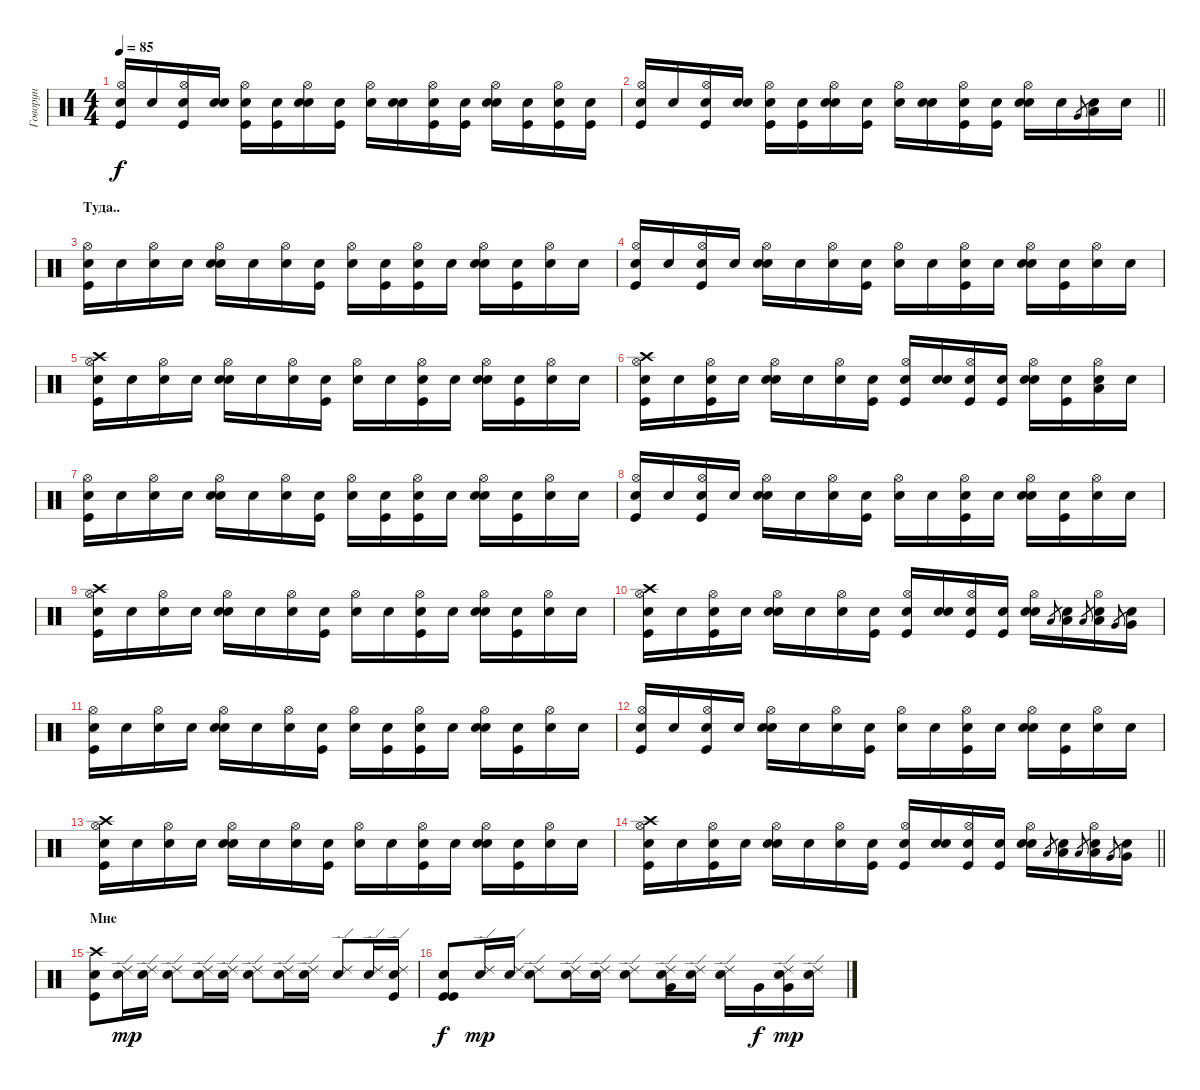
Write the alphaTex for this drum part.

\track ("Говорун" "Говорун") {instrument percussion}
\staff {score}
\articulation defaults
\ts (4 4)
\tempo 85
\clef neutral
\ks c
("Kick (hit)" "Hi-Hat (open)" "Snare (hit)"{x}).16{dy f} "Snare (hit)"{x}.16 ("Kick (hit)" "Hi-Hat (open)" "Snare (hit)"{x}).16 ("Snare (hit) 2" "Snare (hit)"{x}).16 ("Kick (hit)" "Hi-Hat (open)" "Snare (hit)"{x}).16 ("Kick (hit)" "Snare (hit)"{x}).16 ("Snare (hit) 2" "Hi-Hat (open)" "Snare (hit)"{x}).16 ("Kick (hit)" "Snare (hit)"{x}).16 ("Hi-Hat (open)" "Snare (hit)"{x}).16 ("Snare (hit) 2" "Snare (hit)"{x}).16 ("Kick (hit)" "Hi-Hat (open)" "Snare (hit)"{x}).16 ("Kick (hit)" "Snare (hit)"{x}).16 ("Snare (hit) 2" "Hi-Hat (open)" "Snare (hit)"{x}).16 ("Kick (hit)" "Snare (hit)"{x}).16 ("Kick (hit)" "Hi-Hat (open)" "Snare (hit)"{x}).16 ("Kick (hit)" "Snare (hit)"{x}).16 |
\barLineRight lightlight
("Kick (hit)" "Hi-Hat (open)" "Snare (hit)"{x}).16 "Snare (hit)"{x}.16 ("Kick (hit)" "Hi-Hat (open)" "Snare (hit)"{x}).16 ("Snare (hit) 2" "Snare (hit)"{x}).16 ("Kick (hit)" "Hi-Hat (open)" "Snare (hit)"{x}).16 ("Kick (hit)" "Snare (hit)"{x}).16 ("Snare (hit) 2" "Hi-Hat (open)" "Snare (hit)"{x}).16 ("Kick (hit)" "Snare (hit)"{x}).16 ("Hi-Hat (open)" "Snare (hit)"{x}).16 ("Snare (hit) 2" "Snare (hit)"{x}).16 ("Kick (hit)" "Hi-Hat (open)" "Snare (hit)"{x}).16 ("Kick (hit)" "Snare (hit)"{x}).16 ("Snare (hit) 2" "Hi-Hat (open)" "Snare (hit)"{x}).16 "Snare (hit)"{x}.16 "Very Low Tom (hit)".8{gr} ("Low Tom (hit)" "Snare (hit)"{x}).16 "Snare (hit)"{x}.16 |
\section ("" "Туда..")
("Kick (hit)" "Hi-Hat (open)" "Snare (hit)"{x}).16 "Snare (hit)"{x}.16 ("Hi-Hat (open)" "Snare (hit)"{x}).16 "Snare (hit)"{x}.16 ("Snare (hit) 2" "Hi-Hat (open)" "Snare (hit)"{x}).16 "Snare (hit)"{x}.16 ("Hi-Hat (open)" "Snare (hit)"{x}).16 ("Kick (hit)" "Snare (hit)"{x}).16 ("Hi-Hat (open)" "Snare (hit)"{x}).16 ("Kick (hit)" "Snare (hit)"{x}).16 ("Kick (hit)" "Hi-Hat (open)" "Snare (hit)"{x}).16 "Snare (hit)"{x}.16 ("Snare (hit) 2" "Hi-Hat (open)" "Snare (hit)"{x}).16 ("Kick (hit)" "Snare (hit)"{x}).16 ("Hi-Hat (open)" "Snare (hit)"{x}).16 "Snare (hit)"{x}.16 |
("Kick (hit)" "Hi-Hat (open)" "Snare (hit)"{x}).16 "Snare (hit)"{x}.16 ("Kick (hit)" "Hi-Hat (open)" "Snare (hit)"{x}).16 "Snare (hit)"{x}.16 ("Snare (hit) 2" "Hi-Hat (open)" "Snare (hit)"{x}).16 "Snare (hit)"{x}.16 ("Hi-Hat (open)" "Snare (hit)"{x}).16 ("Kick (hit)" "Snare (hit)"{x}).16 ("Hi-Hat (open)" "Snare (hit)"{x}).16 "Snare (hit)"{x}.16 ("Kick (hit)" "Hi-Hat (open)" "Snare (hit)"{x}).16 "Snare (hit)"{x}.16 ("Snare (hit) 2" "Hi-Hat (open)" "Snare (hit)"{x}).16 ("Kick (hit)" "Snare (hit)"{x}).16 ("Hi-Hat (open)" "Snare (hit)"{x}).16 "Snare (hit)"{x}.16 |
("Kick (hit)" "Hi-Hat (open)" "Crash high (hit)" "Snare (hit)"{x}).16 "Snare (hit)"{x}.16 ("Hi-Hat (open)" "Snare (hit)"{x}).16 "Snare (hit)"{x}.16 ("Snare (hit) 2" "Hi-Hat (open)" "Snare (hit)"{x}).16 "Snare (hit)"{x}.16 ("Hi-Hat (open)" "Snare (hit)"{x}).16 ("Kick (hit)" "Snare (hit)"{x}).16 ("Hi-Hat (open)" "Snare (hit)"{x}).16 "Snare (hit)"{x}.16 ("Kick (hit)" "Hi-Hat (open)" "Snare (hit)"{x}).16 "Snare (hit)"{x}.16 ("Snare (hit) 2" "Hi-Hat (open)" "Snare (hit)"{x}).16 ("Kick (hit)" "Snare (hit)"{x}).16 ("Hi-Hat (open)" "Snare (hit)"{x}).16 "Snare (hit)"{x}.16 |
("Kick (hit)" "Hi-Hat (open)" "Crash high (hit)" "Snare (hit)"{x}).16 "Snare (hit)"{x}.16 ("Kick (hit)" "Hi-Hat (open)" "Snare (hit)"{x}).16 "Snare (hit)"{x}.16 ("Snare (hit) 2" "Hi-Hat (open)" "Snare (hit)"{x}).16 "Snare (hit)"{x}.16 ("Hi-Hat (open)" "Snare (hit)"{x}).16 ("Kick (hit)" "Snare (hit)"{x}).16 ("Kick (hit)" "Hi-Hat (open)" "Snare (hit)"{x}).16 ("Snare (hit) 2" "Snare (hit)"{x}).16 ("Kick (hit)" "Hi-Hat (open)" "Snare (hit)"{x}).16 ("Kick (hit)" "Snare (hit)"{x}).16 ("Snare (hit) 2" "Hi-Hat (open)" "Snare (hit)"{x}).16 ("Kick (hit)" "Snare (hit)"{x}).16 ("Low Tom (hit)" "Hi-Hat (open)" "Snare (hit)"{x}).16 "Snare (hit)"{x}.16 |
("Kick (hit)" "Hi-Hat (open)" "Snare (hit)"{x}).16 "Snare (hit)"{x}.16 ("Hi-Hat (open)" "Snare (hit)"{x}).16 "Snare (hit)"{x}.16 ("Snare (hit) 2" "Hi-Hat (open)" "Snare (hit)"{x}).16 "Snare (hit)"{x}.16 ("Hi-Hat (open)" "Snare (hit)"{x}).16 ("Kick (hit)" "Snare (hit)"{x}).16 ("Hi-Hat (open)" "Snare (hit)"{x}).16 ("Kick (hit)" "Snare (hit)"{x}).16 ("Kick (hit)" "Hi-Hat (open)" "Snare (hit)"{x}).16 "Snare (hit)"{x}.16 ("Snare (hit) 2" "Hi-Hat (open)" "Snare (hit)"{x}).16 ("Kick (hit)" "Snare (hit)"{x}).16 ("Hi-Hat (open)" "Snare (hit)"{x}).16 "Snare (hit)"{x}.16 |
("Kick (hit)" "Hi-Hat (open)" "Snare (hit)"{x}).16 "Snare (hit)"{x}.16 ("Kick (hit)" "Hi-Hat (open)" "Snare (hit)"{x}).16 "Snare (hit)"{x}.16 ("Snare (hit) 2" "Hi-Hat (open)" "Snare (hit)"{x}).16 "Snare (hit)"{x}.16 ("Hi-Hat (open)" "Snare (hit)"{x}).16 ("Kick (hit)" "Snare (hit)"{x}).16 ("Hi-Hat (open)" "Snare (hit)"{x}).16 "Snare (hit)"{x}.16 ("Kick (hit)" "Hi-Hat (open)" "Snare (hit)"{x}).16 "Snare (hit)"{x}.16 ("Snare (hit) 2" "Hi-Hat (open)" "Snare (hit)"{x}).16 ("Kick (hit)" "Snare (hit)"{x}).16 ("Hi-Hat (open)" "Snare (hit)"{x}).16 "Snare (hit)"{x}.16 |
("Kick (hit)" "Hi-Hat (open)" "Crash high (hit)" "Snare (hit)"{x}).16 "Snare (hit)"{x}.16 ("Hi-Hat (open)" "Snare (hit)"{x}).16 "Snare (hit)"{x}.16 ("Snare (hit) 2" "Hi-Hat (open)" "Snare (hit)"{x}).16 "Snare (hit)"{x}.16 ("Hi-Hat (open)" "Snare (hit)"{x}).16 ("Kick (hit)" "Snare (hit)"{x}).16 ("Hi-Hat (open)" "Snare (hit)"{x}).16 "Snare (hit)"{x}.16 ("Kick (hit)" "Hi-Hat (open)" "Snare (hit)"{x}).16 "Snare (hit)"{x}.16 ("Snare (hit) 2" "Hi-Hat (open)" "Snare (hit)"{x}).16 ("Kick (hit)" "Snare (hit)"{x}).16 ("Hi-Hat (open)" "Snare (hit)"{x}).16 "Snare (hit)"{x}.16 |
("Kick (hit)" "Hi-Hat (open)" "Crash high (hit)" "Snare (hit)"{x}).16 "Snare (hit)"{x}.16 ("Kick (hit)" "Hi-Hat (open)" "Snare (hit)"{x}).16 "Snare (hit)"{x}.16 ("Snare (hit) 2" "Hi-Hat (open)" "Snare (hit)"{x}).16 "Snare (hit)"{x}.16 ("Hi-Hat (open)" "Snare (hit)"{x}).16 ("Kick (hit)" "Snare (hit)"{x}).16 ("Kick (hit)" "Hi-Hat (open)" "Snare (hit)"{x}).16 ("Snare (hit) 2" "Snare (hit)"{x}).16 ("Kick (hit)" "Hi-Hat (open)" "Snare (hit)"{x}).16 ("Kick (hit)" "Snare (hit)"{x}).16 ("Snare (hit) 2" "Hi-Hat (open)" "Snare (hit)"{x}).16 "Low Tom (hit)".8{gr} ("Low Tom (hit)" "Snare (hit)"{x}).16 "Low Tom (hit)".8{gr} ("Low Tom (hit)" "Hi-Hat (open)" "Snare (hit)"{x}).16 "Very Low Tom (hit)".8{gr} ("Very Low Tom (hit)" "Snare (hit)"{x}).16 |
("Kick (hit)" "Hi-Hat (open)" "Snare (hit)"{x}).16 "Snare (hit)"{x}.16 ("Hi-Hat (open)" "Snare (hit)"{x}).16 "Snare (hit)"{x}.16 ("Snare (hit) 2" "Hi-Hat (open)" "Snare (hit)"{x}).16 "Snare (hit)"{x}.16 ("Hi-Hat (open)" "Snare (hit)"{x}).16 ("Kick (hit)" "Snare (hit)"{x}).16 ("Hi-Hat (open)" "Snare (hit)"{x}).16 ("Kick (hit)" "Snare (hit)"{x}).16 ("Kick (hit)" "Hi-Hat (open)" "Snare (hit)"{x}).16 "Snare (hit)"{x}.16 ("Snare (hit) 2" "Hi-Hat (open)" "Snare (hit)"{x}).16 ("Kick (hit)" "Snare (hit)"{x}).16 ("Hi-Hat (open)" "Snare (hit)"{x}).16 "Snare (hit)"{x}.16 |
("Kick (hit)" "Hi-Hat (open)" "Snare (hit)"{x}).16 "Snare (hit)"{x}.16 ("Kick (hit)" "Hi-Hat (open)" "Snare (hit)"{x}).16 "Snare (hit)"{x}.16 ("Snare (hit) 2" "Hi-Hat (open)" "Snare (hit)"{x}).16 "Snare (hit)"{x}.16 ("Hi-Hat (open)" "Snare (hit)"{x}).16 ("Kick (hit)" "Snare (hit)"{x}).16 ("Hi-Hat (open)" "Snare (hit)"{x}).16 "Snare (hit)"{x}.16 ("Kick (hit)" "Hi-Hat (open)" "Snare (hit)"{x}).16 "Snare (hit)"{x}.16 ("Snare (hit) 2" "Hi-Hat (open)" "Snare (hit)"{x}).16 ("Kick (hit)" "Snare (hit)"{x}).16 ("Hi-Hat (open)" "Snare (hit)"{x}).16 "Snare (hit)"{x}.16 |
("Kick (hit)" "Hi-Hat (open)" "Crash high (hit)" "Snare (hit)"{x}).16 "Snare (hit)"{x}.16 ("Hi-Hat (open)" "Snare (hit)"{x}).16 "Snare (hit)"{x}.16 ("Snare (hit) 2" "Hi-Hat (open)" "Snare (hit)"{x}).16 "Snare (hit)"{x}.16 ("Hi-Hat (open)" "Snare (hit)"{x}).16 ("Kick (hit)" "Snare (hit)"{x}).16 ("Hi-Hat (open)" "Snare (hit)"{x}).16 "Snare (hit)"{x}.16 ("Kick (hit)" "Hi-Hat (open)" "Snare (hit)"{x}).16 "Snare (hit)"{x}.16 ("Snare (hit) 2" "Hi-Hat (open)" "Snare (hit)"{x}).16 ("Kick (hit)" "Snare (hit)"{x}).16 ("Hi-Hat (open)" "Snare (hit)"{x}).16 "Snare (hit)"{x}.16 |
\barLineRight lightlight
("Kick (hit)" "Hi-Hat (open)" "Crash high (hit)" "Snare (hit)"{x}).16 "Snare (hit)"{x}.16 ("Kick (hit)" "Hi-Hat (open)" "Snare (hit)"{x}).16 "Snare (hit)"{x}.16 ("Snare (hit) 2" "Hi-Hat (open)" "Snare (hit)"{x}).16 "Snare (hit)"{x}.16 ("Hi-Hat (open)" "Snare (hit)"{x}).16 ("Kick (hit)" "Snare (hit)"{x}).16 ("Kick (hit)" "Hi-Hat (open)" "Snare (hit)"{x}).16 ("Snare (hit) 2" "Snare (hit)"{x}).16 ("Kick (hit)" "Hi-Hat (open)" "Snare (hit)"{x}).16 ("Kick (hit)" "Snare (hit)"{x}).16 ("Snare (hit) 2" "Hi-Hat (open)" "Snare (hit)"{x}).16 "Low Tom (hit)".8{gr} ("Low Tom (hit)" "Snare (hit)"{x}).16 "Low Tom (hit)".8{gr} ("Low Tom (hit)" "Hi-Hat (open)" "Snare (hit)"{x}).16 "Very Low Tom (hit)".8{gr} ("Very Low Tom (hit)" "Snare (hit)"{x}).16 |
\section ("" "Мне")
("Kick (hit)" "Crash high (hit)" "Snare (hit)"{x}).8 ("Ride (edge) 2" "Snare (hit)"{x}).16{dy mp} ("Ride (edge) 2" "Snare (hit)"{x}).16 ("Ride (edge) 2" "Snare (hit)"{x}).8 ("Ride (edge) 2" "Snare (hit)"{x}).16 ("Ride (edge) 2" "Snare (hit)"{x}).16 ("Ride (edge) 2" "Snare (hit)"{x}).8 ("Ride (edge) 2" "Snare (hit)"{x}).16 ("Ride (edge) 2" "Snare (hit)"{x}).16 ("Ride (edge) 2" "Snare (hit)"{x}).8 ("Ride (edge) 2" "Snare (hit)"{x}).16 ("Ride (edge) 2" "Kick (hit)" "Snare (hit)"{x}).16 |
("Kick (hit)" "Kick (hit)" "Snare (hit)"{x}).8{dy f} ("Ride (edge) 2" "Snare (hit)"{x}).16{dy mp} ("Ride (edge) 2" "Snare (hit)"{x}).16 ("Ride (edge) 2" "Snare (hit)"{x}).8 ("Ride (edge) 2" "Snare (hit)"{x}).16 ("Ride (edge) 2" "Snare (hit)"{x}).16 ("Ride (edge) 2" "Snare (hit)"{x}).8 ("Very Low Tom (hit)" "Ride (edge) 2" "Snare (hit)"{x}).16 ("Ride (edge) 2" "Snare (hit)"{x}).16 ("Ride (edge) 2" "Snare (hit)"{x}).16 "Very Low Tom (hit)".16{dy f} ("Very Low Tom (hit)" "Ride (edge) 2" "Snare (hit)"{x}).16{dy mp} ("Ride (edge) 2" "Snare (hit)"{x}).16
